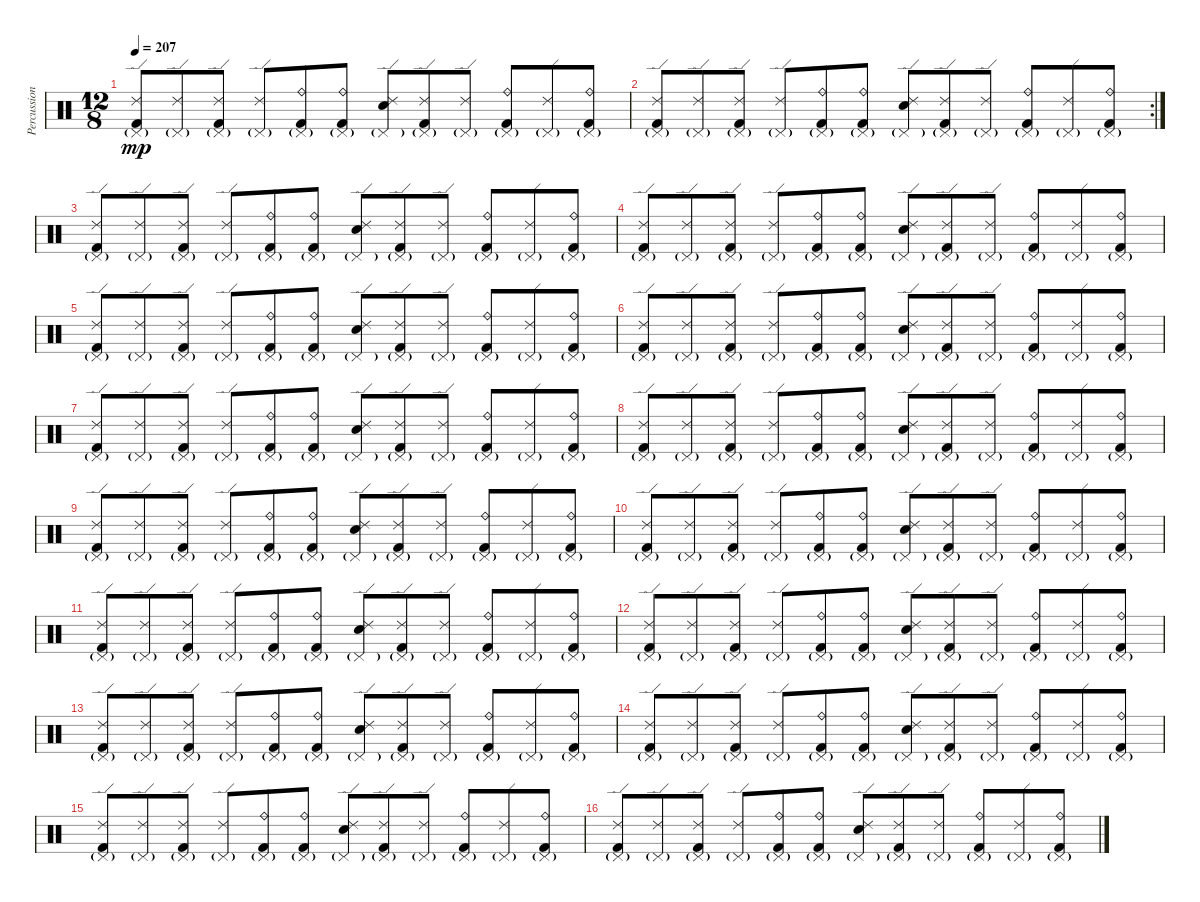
\track ("Percussion" "Percussion") {instrument percussion}
\staff {score}
\articulation defaults
\ts (12 8)
\tempo 207
\clef neutral
\ks c
("Ride (edge) 2" "Pedal Hi-Hat (hit)"{g} "Kick (hit) 2").8{dy mp} ("Ride (edge) 2" "Pedal Hi-Hat (hit)"{g}).8 ("Ride (edge) 2" "Pedal Hi-Hat (hit)"{g} "Kick (hit) 2").8 ("Ride (edge) 2" "Pedal Hi-Hat (hit)"{g}).8 ("Ride (bell)" "Pedal Hi-Hat (hit)"{g} "Kick (hit) 2").8 ("Ride (bell)" "Pedal Hi-Hat (hit)"{g} "Kick (hit) 2").8 ("Ride (edge) 2" "Pedal Hi-Hat (hit)"{g} "Electric Snare (hit)").8 ("Ride (edge) 2" "Pedal Hi-Hat (hit)"{g} "Kick (hit) 2").8 ("Ride (edge) 2" "Pedal Hi-Hat (hit)"{g}).8 ("Ride (bell)" "Pedal Hi-Hat (hit)"{g} "Kick (hit) 2").8 ("Ride (edge) 2" "Pedal Hi-Hat (hit)"{g}).8 ("Ride (bell)" "Pedal Hi-Hat (hit)"{g} "Kick (hit) 2").8 |
\rc 2
("Ride (edge) 2" "Pedal Hi-Hat (hit)"{g} "Kick (hit) 2").8 ("Ride (edge) 2" "Pedal Hi-Hat (hit)"{g}).8 ("Ride (edge) 2" "Pedal Hi-Hat (hit)"{g} "Kick (hit) 2").8 ("Ride (edge) 2" "Pedal Hi-Hat (hit)"{g}).8 ("Ride (bell)" "Pedal Hi-Hat (hit)"{g} "Kick (hit) 2").8 ("Ride (bell)" "Pedal Hi-Hat (hit)"{g} "Kick (hit) 2").8 ("Ride (edge) 2" "Pedal Hi-Hat (hit)"{g} "Electric Snare (hit)").8 ("Ride (edge) 2" "Pedal Hi-Hat (hit)"{g} "Kick (hit) 2").8 ("Ride (edge) 2" "Pedal Hi-Hat (hit)"{g}).8 ("Ride (bell)" "Pedal Hi-Hat (hit)"{g} "Kick (hit) 2").8 ("Ride (edge) 2" "Pedal Hi-Hat (hit)"{g}).8 ("Ride (bell)" "Pedal Hi-Hat (hit)"{g} "Kick (hit) 2").8 |
("Ride (edge) 2" "Pedal Hi-Hat (hit)"{g} "Kick (hit) 2").8 ("Ride (edge) 2" "Pedal Hi-Hat (hit)"{g}).8 ("Ride (edge) 2" "Pedal Hi-Hat (hit)"{g} "Kick (hit) 2").8 ("Ride (edge) 2" "Pedal Hi-Hat (hit)"{g}).8 ("Ride (bell)" "Pedal Hi-Hat (hit)"{g} "Kick (hit) 2").8 ("Ride (bell)" "Pedal Hi-Hat (hit)"{g} "Kick (hit) 2").8 ("Ride (edge) 2" "Pedal Hi-Hat (hit)"{g} "Electric Snare (hit)").8 ("Ride (edge) 2" "Pedal Hi-Hat (hit)"{g} "Kick (hit) 2").8 ("Ride (edge) 2" "Pedal Hi-Hat (hit)"{g}).8 ("Ride (bell)" "Pedal Hi-Hat (hit)"{g} "Kick (hit) 2").8 ("Ride (edge) 2" "Pedal Hi-Hat (hit)"{g}).8 ("Ride (bell)" "Pedal Hi-Hat (hit)"{g} "Kick (hit) 2").8 |
("Ride (edge) 2" "Pedal Hi-Hat (hit)"{g} "Kick (hit) 2").8 ("Ride (edge) 2" "Pedal Hi-Hat (hit)"{g}).8 ("Ride (edge) 2" "Pedal Hi-Hat (hit)"{g} "Kick (hit) 2").8 ("Ride (edge) 2" "Pedal Hi-Hat (hit)"{g}).8 ("Ride (bell)" "Pedal Hi-Hat (hit)"{g} "Kick (hit) 2").8 ("Ride (bell)" "Pedal Hi-Hat (hit)"{g} "Kick (hit) 2").8 ("Ride (edge) 2" "Pedal Hi-Hat (hit)"{g} "Electric Snare (hit)").8 ("Ride (edge) 2" "Pedal Hi-Hat (hit)"{g} "Kick (hit) 2").8 ("Ride (edge) 2" "Pedal Hi-Hat (hit)"{g}).8 ("Ride (bell)" "Pedal Hi-Hat (hit)"{g} "Kick (hit) 2").8 ("Ride (edge) 2" "Pedal Hi-Hat (hit)"{g}).8 ("Ride (bell)" "Pedal Hi-Hat (hit)"{g} "Kick (hit) 2").8 |
("Ride (edge) 2" "Pedal Hi-Hat (hit)"{g} "Kick (hit) 2").8 ("Ride (edge) 2" "Pedal Hi-Hat (hit)"{g}).8 ("Ride (edge) 2" "Pedal Hi-Hat (hit)"{g} "Kick (hit) 2").8 ("Ride (edge) 2" "Pedal Hi-Hat (hit)"{g}).8 ("Ride (bell)" "Pedal Hi-Hat (hit)"{g} "Kick (hit) 2").8 ("Ride (bell)" "Pedal Hi-Hat (hit)"{g} "Kick (hit) 2").8 ("Ride (edge) 2" "Pedal Hi-Hat (hit)"{g} "Electric Snare (hit)").8 ("Ride (edge) 2" "Pedal Hi-Hat (hit)"{g} "Kick (hit) 2").8 ("Ride (edge) 2" "Pedal Hi-Hat (hit)"{g}).8 ("Ride (bell)" "Pedal Hi-Hat (hit)"{g} "Kick (hit) 2").8 ("Ride (edge) 2" "Pedal Hi-Hat (hit)"{g}).8 ("Ride (bell)" "Pedal Hi-Hat (hit)"{g} "Kick (hit) 2").8 |
("Ride (edge) 2" "Pedal Hi-Hat (hit)"{g} "Kick (hit) 2").8 ("Ride (edge) 2" "Pedal Hi-Hat (hit)"{g}).8 ("Ride (edge) 2" "Pedal Hi-Hat (hit)"{g} "Kick (hit) 2").8 ("Ride (edge) 2" "Pedal Hi-Hat (hit)"{g}).8 ("Ride (bell)" "Pedal Hi-Hat (hit)"{g} "Kick (hit) 2").8 ("Ride (bell)" "Pedal Hi-Hat (hit)"{g} "Kick (hit) 2").8 ("Ride (edge) 2" "Pedal Hi-Hat (hit)"{g} "Electric Snare (hit)").8 ("Ride (edge) 2" "Pedal Hi-Hat (hit)"{g} "Kick (hit) 2").8 ("Ride (edge) 2" "Pedal Hi-Hat (hit)"{g}).8 ("Ride (bell)" "Pedal Hi-Hat (hit)"{g} "Kick (hit) 2").8 ("Ride (edge) 2" "Pedal Hi-Hat (hit)"{g}).8 ("Ride (bell)" "Pedal Hi-Hat (hit)"{g} "Kick (hit) 2").8 |
("Ride (edge) 2" "Pedal Hi-Hat (hit)"{g} "Kick (hit) 2").8 ("Ride (edge) 2" "Pedal Hi-Hat (hit)"{g}).8 ("Ride (edge) 2" "Pedal Hi-Hat (hit)"{g} "Kick (hit) 2").8 ("Ride (edge) 2" "Pedal Hi-Hat (hit)"{g}).8 ("Ride (bell)" "Pedal Hi-Hat (hit)"{g} "Kick (hit) 2").8 ("Ride (bell)" "Pedal Hi-Hat (hit)"{g} "Kick (hit) 2").8 ("Ride (edge) 2" "Pedal Hi-Hat (hit)"{g} "Electric Snare (hit)").8 ("Ride (edge) 2" "Pedal Hi-Hat (hit)"{g} "Kick (hit) 2").8 ("Ride (edge) 2" "Pedal Hi-Hat (hit)"{g}).8 ("Ride (bell)" "Pedal Hi-Hat (hit)"{g} "Kick (hit) 2").8 ("Ride (edge) 2" "Pedal Hi-Hat (hit)"{g}).8 ("Ride (bell)" "Pedal Hi-Hat (hit)"{g} "Kick (hit) 2").8 |
("Ride (edge) 2" "Pedal Hi-Hat (hit)"{g} "Kick (hit) 2").8 ("Ride (edge) 2" "Pedal Hi-Hat (hit)"{g}).8 ("Ride (edge) 2" "Pedal Hi-Hat (hit)"{g} "Kick (hit) 2").8 ("Ride (edge) 2" "Pedal Hi-Hat (hit)"{g}).8 ("Ride (bell)" "Pedal Hi-Hat (hit)"{g} "Kick (hit) 2").8 ("Ride (bell)" "Pedal Hi-Hat (hit)"{g} "Kick (hit) 2").8 ("Ride (edge) 2" "Pedal Hi-Hat (hit)"{g} "Electric Snare (hit)").8 ("Ride (edge) 2" "Pedal Hi-Hat (hit)"{g} "Kick (hit) 2").8 ("Ride (edge) 2" "Pedal Hi-Hat (hit)"{g}).8 ("Ride (bell)" "Pedal Hi-Hat (hit)"{g} "Kick (hit) 2").8 ("Ride (edge) 2" "Pedal Hi-Hat (hit)"{g}).8 ("Ride (bell)" "Pedal Hi-Hat (hit)"{g} "Kick (hit) 2").8 |
("Ride (edge) 2" "Pedal Hi-Hat (hit)"{g} "Kick (hit) 2").8 ("Ride (edge) 2" "Pedal Hi-Hat (hit)"{g}).8 ("Ride (edge) 2" "Pedal Hi-Hat (hit)"{g} "Kick (hit) 2").8 ("Ride (edge) 2" "Pedal Hi-Hat (hit)"{g}).8 ("Ride (bell)" "Pedal Hi-Hat (hit)"{g} "Kick (hit) 2").8 ("Ride (bell)" "Pedal Hi-Hat (hit)"{g} "Kick (hit) 2").8 ("Ride (edge) 2" "Pedal Hi-Hat (hit)"{g} "Electric Snare (hit)").8 ("Ride (edge) 2" "Pedal Hi-Hat (hit)"{g} "Kick (hit) 2").8 ("Ride (edge) 2" "Pedal Hi-Hat (hit)"{g}).8 ("Ride (bell)" "Pedal Hi-Hat (hit)"{g} "Kick (hit) 2").8 ("Ride (edge) 2" "Pedal Hi-Hat (hit)"{g}).8 ("Ride (bell)" "Pedal Hi-Hat (hit)"{g} "Kick (hit) 2").8 |
("Ride (edge) 2" "Pedal Hi-Hat (hit)"{g} "Kick (hit) 2").8 ("Ride (edge) 2" "Pedal Hi-Hat (hit)"{g}).8 ("Ride (edge) 2" "Pedal Hi-Hat (hit)"{g} "Kick (hit) 2").8 ("Ride (edge) 2" "Pedal Hi-Hat (hit)"{g}).8 ("Ride (bell)" "Pedal Hi-Hat (hit)"{g} "Kick (hit) 2").8 ("Ride (bell)" "Pedal Hi-Hat (hit)"{g} "Kick (hit) 2").8 ("Ride (edge) 2" "Pedal Hi-Hat (hit)"{g} "Electric Snare (hit)").8 ("Ride (edge) 2" "Pedal Hi-Hat (hit)"{g} "Kick (hit) 2").8 ("Ride (edge) 2" "Pedal Hi-Hat (hit)"{g}).8 ("Ride (bell)" "Pedal Hi-Hat (hit)"{g} "Kick (hit) 2").8 ("Ride (edge) 2" "Pedal Hi-Hat (hit)"{g}).8 ("Ride (bell)" "Pedal Hi-Hat (hit)"{g} "Kick (hit) 2").8 |
("Ride (edge) 2" "Pedal Hi-Hat (hit)"{g} "Kick (hit) 2").8 ("Ride (edge) 2" "Pedal Hi-Hat (hit)"{g}).8 ("Ride (edge) 2" "Pedal Hi-Hat (hit)"{g} "Kick (hit) 2").8 ("Ride (edge) 2" "Pedal Hi-Hat (hit)"{g}).8 ("Ride (bell)" "Pedal Hi-Hat (hit)"{g} "Kick (hit) 2").8 ("Ride (bell)" "Pedal Hi-Hat (hit)"{g} "Kick (hit) 2").8 ("Ride (edge) 2" "Pedal Hi-Hat (hit)"{g} "Electric Snare (hit)").8 ("Ride (edge) 2" "Pedal Hi-Hat (hit)"{g} "Kick (hit) 2").8 ("Ride (edge) 2" "Pedal Hi-Hat (hit)"{g}).8 ("Ride (bell)" "Pedal Hi-Hat (hit)"{g} "Kick (hit) 2").8 ("Ride (edge) 2" "Pedal Hi-Hat (hit)"{g}).8 ("Ride (bell)" "Pedal Hi-Hat (hit)"{g} "Kick (hit) 2").8 |
("Ride (edge) 2" "Pedal Hi-Hat (hit)"{g} "Kick (hit) 2").8 ("Ride (edge) 2" "Pedal Hi-Hat (hit)"{g}).8 ("Ride (edge) 2" "Pedal Hi-Hat (hit)"{g} "Kick (hit) 2").8 ("Ride (edge) 2" "Pedal Hi-Hat (hit)"{g}).8 ("Ride (bell)" "Pedal Hi-Hat (hit)"{g} "Kick (hit) 2").8 ("Ride (bell)" "Pedal Hi-Hat (hit)"{g} "Kick (hit) 2").8 ("Ride (edge) 2" "Pedal Hi-Hat (hit)"{g} "Electric Snare (hit)").8 ("Ride (edge) 2" "Pedal Hi-Hat (hit)"{g} "Kick (hit) 2").8 ("Ride (edge) 2" "Pedal Hi-Hat (hit)"{g}).8 ("Ride (bell)" "Pedal Hi-Hat (hit)"{g} "Kick (hit) 2").8 ("Ride (edge) 2" "Pedal Hi-Hat (hit)"{g}).8 ("Ride (bell)" "Pedal Hi-Hat (hit)"{g} "Kick (hit) 2").8 |
("Ride (edge) 2" "Pedal Hi-Hat (hit)"{g} "Kick (hit) 2").8 ("Ride (edge) 2" "Pedal Hi-Hat (hit)"{g}).8 ("Ride (edge) 2" "Pedal Hi-Hat (hit)"{g} "Kick (hit) 2").8 ("Ride (edge) 2" "Pedal Hi-Hat (hit)"{g}).8 ("Ride (bell)" "Pedal Hi-Hat (hit)"{g} "Kick (hit) 2").8 ("Ride (bell)" "Pedal Hi-Hat (hit)"{g} "Kick (hit) 2").8 ("Ride (edge) 2" "Pedal Hi-Hat (hit)"{g} "Electric Snare (hit)").8 ("Ride (edge) 2" "Pedal Hi-Hat (hit)"{g} "Kick (hit) 2").8 ("Ride (edge) 2" "Pedal Hi-Hat (hit)"{g}).8 ("Ride (bell)" "Pedal Hi-Hat (hit)"{g} "Kick (hit) 2").8 ("Ride (edge) 2" "Pedal Hi-Hat (hit)"{g}).8 ("Ride (bell)" "Pedal Hi-Hat (hit)"{g} "Kick (hit) 2").8 |
("Ride (edge) 2" "Pedal Hi-Hat (hit)"{g} "Kick (hit) 2").8 ("Ride (edge) 2" "Pedal Hi-Hat (hit)"{g}).8 ("Ride (edge) 2" "Pedal Hi-Hat (hit)"{g} "Kick (hit) 2").8 ("Ride (edge) 2" "Pedal Hi-Hat (hit)"{g}).8 ("Ride (bell)" "Pedal Hi-Hat (hit)"{g} "Kick (hit) 2").8 ("Ride (bell)" "Pedal Hi-Hat (hit)"{g} "Kick (hit) 2").8 ("Ride (edge) 2" "Pedal Hi-Hat (hit)"{g} "Electric Snare (hit)").8 ("Ride (edge) 2" "Pedal Hi-Hat (hit)"{g} "Kick (hit) 2").8 ("Ride (edge) 2" "Pedal Hi-Hat (hit)"{g}).8 ("Ride (bell)" "Pedal Hi-Hat (hit)"{g} "Kick (hit) 2").8 ("Ride (edge) 2" "Pedal Hi-Hat (hit)"{g}).8 ("Ride (bell)" "Pedal Hi-Hat (hit)"{g} "Kick (hit) 2").8 |
("Ride (edge) 2" "Pedal Hi-Hat (hit)"{g} "Kick (hit) 2").8 ("Ride (edge) 2" "Pedal Hi-Hat (hit)"{g}).8 ("Ride (edge) 2" "Pedal Hi-Hat (hit)"{g} "Kick (hit) 2").8 ("Ride (edge) 2" "Pedal Hi-Hat (hit)"{g}).8 ("Ride (bell)" "Pedal Hi-Hat (hit)"{g} "Kick (hit) 2").8 ("Ride (bell)" "Pedal Hi-Hat (hit)"{g} "Kick (hit) 2").8 ("Ride (edge) 2" "Pedal Hi-Hat (hit)"{g} "Electric Snare (hit)").8 ("Ride (edge) 2" "Pedal Hi-Hat (hit)"{g} "Kick (hit) 2").8 ("Ride (edge) 2" "Pedal Hi-Hat (hit)"{g}).8 ("Ride (bell)" "Pedal Hi-Hat (hit)"{g} "Kick (hit) 2").8 ("Ride (edge) 2" "Pedal Hi-Hat (hit)"{g}).8 ("Ride (bell)" "Pedal Hi-Hat (hit)"{g} "Kick (hit) 2").8 |
("Ride (edge) 2" "Pedal Hi-Hat (hit)"{g} "Kick (hit) 2").8 ("Ride (edge) 2" "Pedal Hi-Hat (hit)"{g}).8 ("Ride (edge) 2" "Pedal Hi-Hat (hit)"{g} "Kick (hit) 2").8 ("Ride (edge) 2" "Pedal Hi-Hat (hit)"{g}).8 ("Ride (bell)" "Pedal Hi-Hat (hit)"{g} "Kick (hit) 2").8 ("Ride (bell)" "Pedal Hi-Hat (hit)"{g} "Kick (hit) 2").8 ("Ride (edge) 2" "Pedal Hi-Hat (hit)"{g} "Electric Snare (hit)").8 ("Ride (edge) 2" "Pedal Hi-Hat (hit)"{g} "Kick (hit) 2").8 ("Ride (edge) 2" "Pedal Hi-Hat (hit)"{g}).8 ("Ride (bell)" "Pedal Hi-Hat (hit)"{g} "Kick (hit) 2").8 ("Ride (edge) 2" "Pedal Hi-Hat (hit)"{g}).8 ("Ride (bell)" "Pedal Hi-Hat (hit)"{g} "Kick (hit) 2").8
